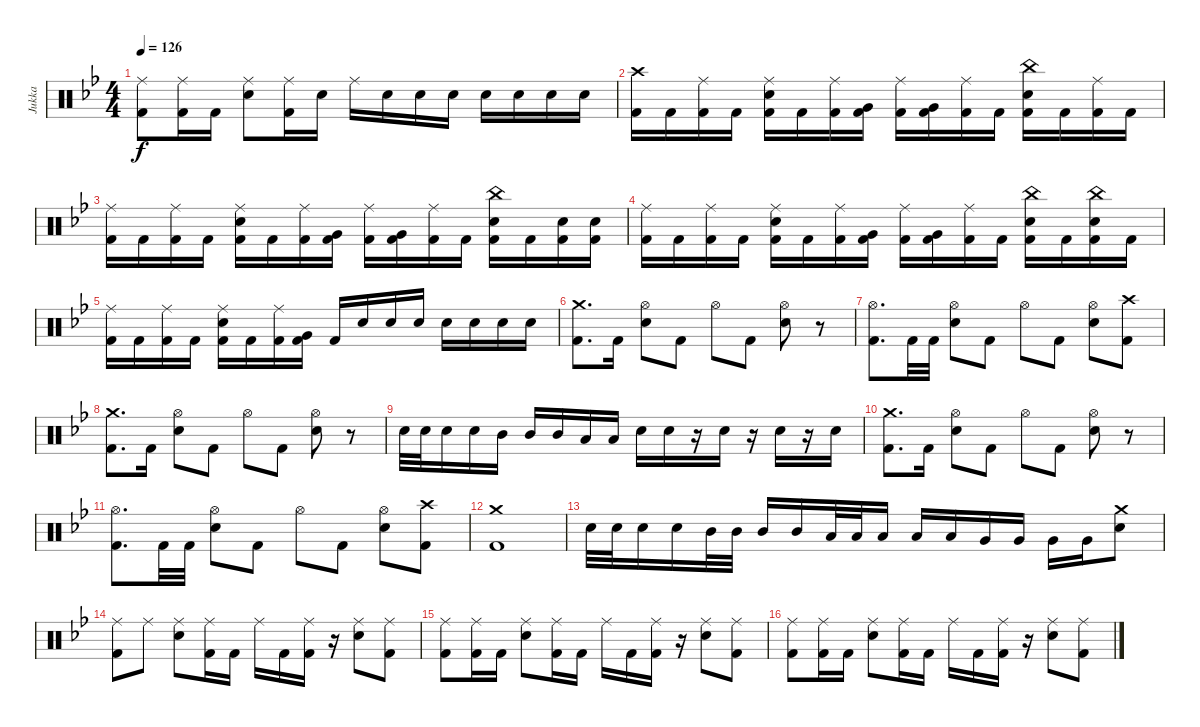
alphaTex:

\track ("Jukka" "Jukka") {instrument percussion}
\staff {score}
\articulation defaults
\ts (4 4)
\tempo 126
\clef neutral
\ks gminor
("Ride (middle)" "Kick (hit) 2").8{dy f} ("Ride (middle)" "Kick (hit) 2").16 "Kick (hit) 2".16 ("Ride (middle)" "Electric Snare (hit)").8 ("Ride (middle)" "Kick (hit) 2").16 "Electric Snare (hit)".16 "Ride (middle)".16 "Electric Snare (hit)".16 "Electric Snare (hit)".16 "Electric Snare (hit)".16 "Electric Snare (hit)".16 "Electric Snare (hit)".16 "Electric Snare (hit)".16 "Electric Snare (hit)".16 |
("Crash high (hit)" "Kick (hit) 2").16 "Kick (hit) 2".16 ("Ride (middle)" "Kick (hit) 2").16 "Kick (hit) 2".16 ("Ride (middle)" "Electric Snare (hit)" "Kick (hit) 2").16 "Kick (hit) 2".16 ("Ride (middle)" "Kick (hit) 2").16 ("Very Low Tom (hit)" "Kick (hit) 2").16 ("Ride (middle)" "Kick (hit) 2").16 ("Very Low Tom (hit)" "Kick (hit) 2").16 ("Ride (middle)" "Kick (hit) 2").16 "Kick (hit) 2".16 ("China (hit)" "Electric Snare (hit)" "Kick (hit) 2").16 "Kick (hit) 2".16 ("Ride (middle)" "Kick (hit) 2").16 "Kick (hit) 2".16 |
("Ride (middle)" "Kick (hit) 2").16 "Kick (hit) 2".16 ("Ride (middle)" "Kick (hit) 2").16 "Kick (hit) 2".16 ("Ride (middle)" "Electric Snare (hit)" "Kick (hit) 2").16 "Kick (hit) 2".16 ("Ride (middle)" "Kick (hit) 2").16 ("Very Low Tom (hit)" "Kick (hit) 2").16 ("Ride (middle)" "Kick (hit) 2").16 ("Very Low Tom (hit)" "Kick (hit) 2").16 ("Ride (middle)" "Kick (hit) 2").16 "Kick (hit) 2".16 ("China (hit)" "Electric Snare (hit)" "Kick (hit) 2").16 "Kick (hit) 2".16 ("Electric Snare (hit)" "Kick (hit) 2").16 ("Electric Snare (hit)" "Kick (hit) 2").16 |
("Ride (middle)" "Kick (hit) 2").16 "Kick (hit) 2".16 ("Ride (middle)" "Kick (hit) 2").16 "Kick (hit) 2".16 ("Ride (middle)" "Electric Snare (hit)" "Kick (hit) 2").16 "Kick (hit) 2".16 ("Ride (middle)" "Kick (hit) 2").16 ("Very Low Tom (hit)" "Kick (hit) 2").16 ("Ride (middle)" "Kick (hit) 2").16 ("Very Low Tom (hit)" "Kick (hit) 2").16 ("Ride (middle)" "Kick (hit) 2").16 "Kick (hit) 2".16 ("China (hit)" "Electric Snare (hit)" "Kick (hit) 2").16 "Kick (hit) 2".16 ("China (hit)" "Electric Snare (hit)" "Kick (hit) 2").16 "Kick (hit) 2".16 |
("Ride (middle)" "Kick (hit) 2").16 "Kick (hit) 2".16 ("Ride (middle)" "Kick (hit) 2").16 "Kick (hit) 2".16 ("Ride (middle)" "Electric Snare (hit)" "Kick (hit) 2").16 "Kick (hit) 2".16 ("Ride (middle)" "Kick (hit) 2").16 ("Very Low Tom (hit)" "Kick (hit) 2").16 "Kick (hit) 2".16 "Electric Snare (hit)".16 "Electric Snare (hit)".16 "Electric Snare (hit)".16 "Electric Snare (hit)".16 "Electric Snare (hit)".16 "Electric Snare (hit)".16 "Electric Snare (hit)".16 |
("Crash medium (hit)" "Kick (hit) 2").8{d} "Kick (hit) 2".16 ("Hi-Hat (open)" "Electric Snare (hit)").8 "Kick (hit) 2".8 "Hi-Hat (open)".8 "Kick (hit) 2".8 ("Hi-Hat (open)" "Electric Snare (hit)").8 r.8 |
("Hi-Hat (open)" "Kick (hit) 2").8{d} "Kick (hit) 2".32 "Kick (hit) 2".32 ("Hi-Hat (open)" "Electric Snare (hit)").8 "Kick (hit) 2".8 "Hi-Hat (open)".8 "Kick (hit) 2".8 ("Hi-Hat (open)" "Electric Snare (hit)").8 ("Crash high (hit)" "Kick (hit) 2").8 |
("Crash medium (hit)" "Kick (hit) 2").8{d} "Kick (hit) 2".16 ("Hi-Hat (open)" "Electric Snare (hit)").8 "Kick (hit) 2".8 "Hi-Hat (open)".8 "Kick (hit) 2".8 ("Hi-Hat (open)" "Electric Snare (hit)").8 r.8 |
"Electric Snare (hit)".32 "Electric Snare (hit)".32 "Electric Snare (hit)".16 "Electric Snare (hit)".16 "Mid Tom (hit)".16 "Mid Tom (hit)".16 "Mid Tom (hit)".16 "Low Tom (hit)".16 "Low Tom (hit)".16 "Electric Snare (hit)".16 "Electric Snare (hit)".16 r.16 "Electric Snare (hit)".16 r.16 "Electric Snare (hit)".16 r.16 "Electric Snare (hit)".16 |
("Crash medium (hit)" "Kick (hit) 2").8{d} "Kick (hit) 2".16 ("Hi-Hat (open)" "Electric Snare (hit)").8 "Kick (hit) 2".8 "Hi-Hat (open)".8 "Kick (hit) 2".8 ("Hi-Hat (open)" "Electric Snare (hit)").8 r.8 |
("Hi-Hat (open)" "Kick (hit) 2").8{d} "Kick (hit) 2".32 "Kick (hit) 2".32 ("Hi-Hat (open)" "Electric Snare (hit)").8 "Kick (hit) 2".8 "Hi-Hat (open)".8 "Kick (hit) 2".8 ("Hi-Hat (open)" "Electric Snare (hit)").8 ("Crash high (hit)" "Kick (hit) 2").8 |
("Crash medium (hit)" "Kick (hit) 2").1 |
"Electric Snare (hit)".32 "Electric Snare (hit)".32 "Electric Snare (hit)".16 "Electric Snare (hit)".16 "Mid Tom (hit)".32 "Mid Tom (hit)".32 "Mid Tom (hit)".16 "Mid Tom (hit)".16 "Low Tom (hit)".32 "Low Tom (hit)".32 "Low Tom (hit)".16 "Low Tom (hit)".16 "Low Tom (hit)".16 "Very Low Tom (hit)".16 "Very Low Tom (hit)".16 "Very Low Tom (hit)".16 "Very Low Tom (hit)".16 ("Crash medium (hit)" "Electric Snare (hit)").8 |
("Ride (middle)" "Kick (hit) 2").8 "Ride (middle)".8 ("Ride (middle)" "Electric Snare (hit)").8 ("Ride (middle)" "Kick (hit) 2").16 "Kick (hit) 2".16 "Ride (middle)".16 "Kick (hit) 2".16 ("Ride (middle)" "Kick (hit) 2").16 r.16 ("Ride (middle)" "Electric Snare (hit)").8 ("Ride (middle)" "Kick (hit) 2").8 |
("Ride (middle)" "Kick (hit) 2").8 ("Ride (middle)" "Kick (hit) 2").16 "Kick (hit) 2".16 ("Ride (middle)" "Electric Snare (hit)").8 ("Ride (middle)" "Kick (hit) 2").16 "Kick (hit) 2".16 "Ride (middle)".16 "Kick (hit) 2".16 ("Ride (middle)" "Kick (hit) 2").16 r.16 ("Ride (middle)" "Electric Snare (hit)").8 ("Ride (middle)" "Kick (hit) 2").8 |
("Ride (middle)" "Kick (hit) 2").8 ("Ride (middle)" "Kick (hit) 2").16 "Kick (hit) 2".16 ("Ride (middle)" "Electric Snare (hit)").8 ("Ride (middle)" "Kick (hit) 2").16 "Kick (hit) 2".16 "Ride (middle)".16 "Kick (hit) 2".16 ("Ride (middle)" "Kick (hit) 2").16 r.16 ("Ride (middle)" "Electric Snare (hit)").8 ("Ride (middle)" "Kick (hit) 2").8
